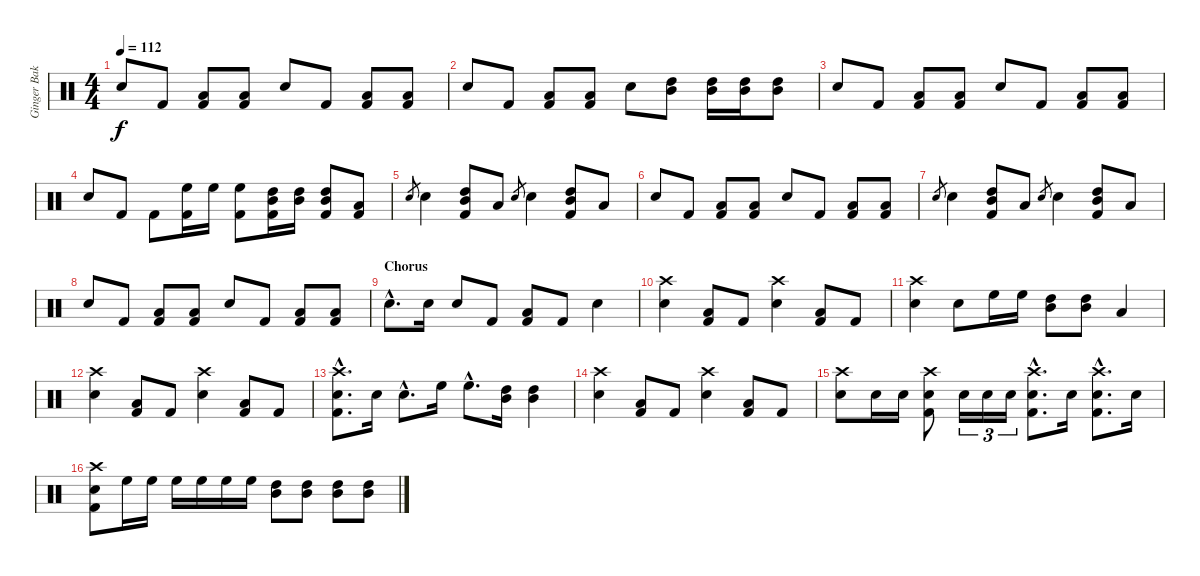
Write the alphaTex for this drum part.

\track ("Ginger Baker" "Ginger Bak") {instrument percussion}
\staff {score}
\articulation defaults
\ts (4 4)
\tempo 112
\clef neutral
\ks c "Snare (hit) 2".8{dy f} "Kick (hit) 2".8
("Low Tom (hit)" "Kick (hit) 2").8 ("Low Tom (hit)" "Kick (hit) 2").8 "Snare (hit) 2".8 "Kick (hit) 2".8 ("Low Tom (hit)" "Kick (hit) 2").8 ("Low Tom (hit)" "Kick (hit) 2").8 |
"Snare (hit) 2".8 "Kick (hit) 2".8 ("Low Tom (hit)" "Kick (hit) 2").8 ("Low Tom (hit)" "Kick (hit) 2").8 "Snare (hit) 2".8 ("High Tom (hit)" "Mid Tom (hit)").8 ("High Tom (hit)" "Mid Tom (hit)").16 ("High Tom (hit)" "Mid Tom (hit)").16 ("High Tom (hit)" "Mid Tom (hit)").8 |
"Snare (hit) 2".8 "Kick (hit) 2".8 ("Low Tom (hit)" "Kick (hit) 2").8 ("Low Tom (hit)" "Kick (hit) 2").8 "Snare (hit) 2".8 "Kick (hit) 2".8 ("Low Tom (hit)" "Kick (hit) 2").8 ("Low Tom (hit)" "Kick (hit) 2").8 |
"Snare (hit) 2".8 "Kick (hit) 2".8 "Kick (hit) 2".8 ("High Floor Tom (hit)" "Kick (hit) 2").16 "High Floor Tom (hit)".16 ("High Floor Tom (hit)" "Kick (hit) 2").8 ("High Tom (hit)" "Mid Tom (hit)" "Kick (hit) 2").16 ("High Tom (hit)" "Mid Tom (hit)").16 ("High Tom (hit)" "Mid Tom (hit)" "Kick (hit) 2").8 ("Low Tom (hit)" "Kick (hit) 2").8 |
"Snare (hit) 2".8{gr} "Snare (hit) 2".4 ("High Tom (hit)" "Mid Tom (hit)" "Kick (hit) 2").8 "Low Tom (hit)".8 "Snare (hit) 2".8{gr} "Snare (hit) 2".4 ("High Tom (hit)" "Mid Tom (hit)" "Kick (hit) 2").8 "Low Tom (hit)".8 |
"Snare (hit) 2".8 "Kick (hit) 2".8 ("Low Tom (hit)" "Kick (hit) 2").8 ("Low Tom (hit)" "Kick (hit) 2").8 "Snare (hit) 2".8 "Kick (hit) 2".8 ("Low Tom (hit)" "Kick (hit) 2").8 ("Low Tom (hit)" "Kick (hit) 2").8 |
"Snare (hit) 2".8{gr} "Snare (hit) 2".4 ("High Tom (hit)" "Mid Tom (hit)" "Kick (hit) 2").8 "Low Tom (hit)".8 "Snare (hit) 2".8{gr} "Snare (hit) 2".4 ("High Tom (hit)" "Mid Tom (hit)" "Kick (hit) 2").8 "Low Tom (hit)".8 |
"Snare (hit) 2".8 "Kick (hit) 2".8 ("Low Tom (hit)" "Kick (hit) 2").8 ("Low Tom (hit)" "Kick (hit) 2").8 "Snare (hit) 2".8 "Kick (hit) 2".8 ("Low Tom (hit)" "Kick (hit) 2").8 ("Low Tom (hit)" "Kick (hit) 2").8 |
\section ("" "Chorus")
"Snare (hit) 2"{hac}.8{d} "Snare (hit) 2".16 "Snare (hit) 2".8 "Kick (hit) 2".8 ("Low Tom (hit)" "Kick (hit) 2").8 "Kick (hit) 2".8 "Snare (hit) 2".4 |
("Crash high (hit)" "Snare (hit) 2").4 ("Low Tom (hit)" "Kick (hit) 2").8 "Kick (hit) 2".8 ("Crash high (hit)" "Snare (hit) 2").4 ("Low Tom (hit)" "Kick (hit) 2").8 "Kick (hit) 2".8 |
("Crash high (hit)" "Snare (hit) 2").4 "Snare (hit) 2".8 "High Floor Tom (hit)".16 "High Floor Tom (hit)".16 ("High Tom (hit)" "Mid Tom (hit)").8 ("High Tom (hit)" "Mid Tom (hit)").8 "Low Tom (hit)".4 |
("Crash high (hit)" "Snare (hit) 2").4 ("Low Tom (hit)" "Kick (hit) 2").8 "Kick (hit) 2".8 ("Crash high (hit)" "Snare (hit) 2").4 ("Low Tom (hit)" "Kick (hit) 2").8 "Kick (hit) 2".8 |
("Crash high (hit)"{hac} "Snare (hit) 2"{hac} "Kick (hit) 2"{hac}).8{d} "Snare (hit) 2".16 "Snare (hit) 2"{hac}.8{d} "High Floor Tom (hit)".16 "High Floor Tom (hit)"{hac}.8{d} ("High Tom (hit)" "Mid Tom (hit)").16 ("High Tom (hit)" "Mid Tom (hit)").4 |
("Crash high (hit)" "Snare (hit) 2").4 ("Low Tom (hit)" "Kick (hit) 2").8 "Kick (hit) 2".8 ("Crash high (hit)" "Snare (hit) 2").4 ("Low Tom (hit)" "Kick (hit) 2").8 "Kick (hit) 2".8 |
("Crash high (hit)" "Snare (hit) 2").8 "Snare (hit) 2".16 "Snare (hit) 2".16 ("Crash high (hit)" "Snare (hit) 2" "Kick (hit) 2").8 "Snare (hit) 2".16{tu (3 2)} "Snare (hit) 2".16{tu (3 2)} "Snare (hit) 2".16{tu (3 2)} ("Crash high (hit)"{hac} "Snare (hit) 2"{hac} "Kick (hit) 2"{hac}).8{d} "Snare (hit) 2".16 ("Crash high (hit)"{hac} "Snare (hit) 2"{hac} "Kick (hit) 2"{hac}).8{d} "Snare (hit) 2".16 |
("Crash high (hit)" "Snare (hit) 2" "Kick (hit) 2").8 "High Floor Tom (hit)".16 "High Floor Tom (hit)".16 "High Floor Tom (hit)".16 "High Floor Tom (hit)".16 "High Floor Tom (hit)".16 "High Floor Tom (hit)".16 ("High Tom (hit)" "Mid Tom (hit)").8 ("High Tom (hit)" "Mid Tom (hit)").8 ("High Tom (hit)" "Mid Tom (hit)").8 ("High Tom (hit)" "Mid Tom (hit)").8
